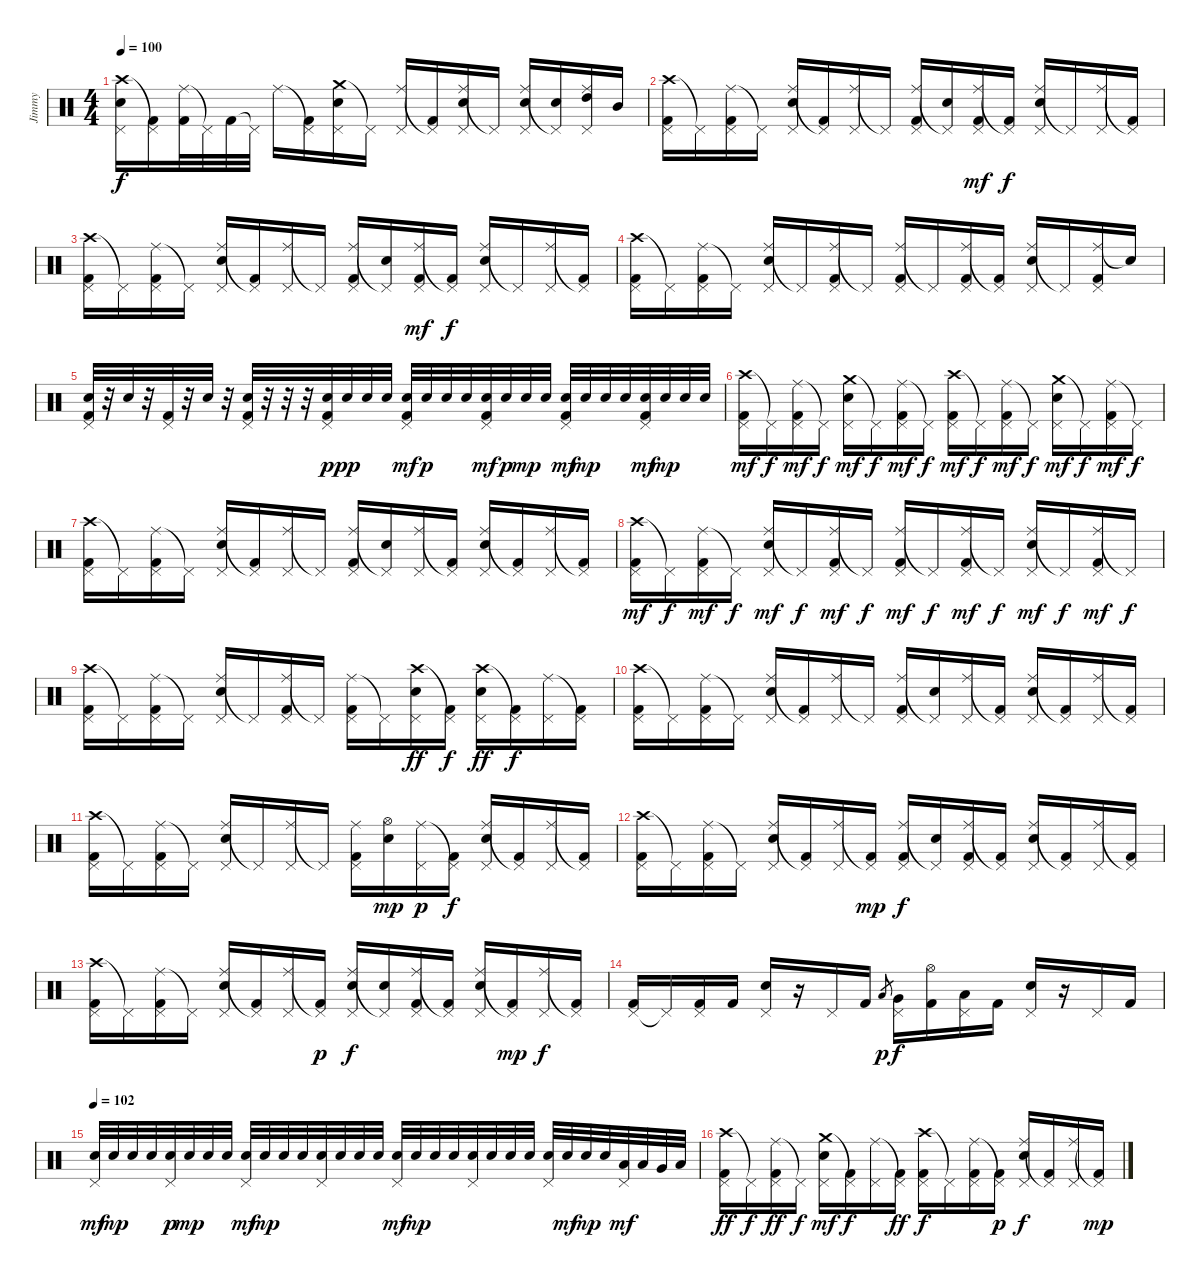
\track ("Jimmy" "Jimmy") {instrument percussion}
\staff {score}
\articulation defaults
\ts (4 4)
\tempo 100
\clef neutral
\ks c
("Crash high (hit)" "Pedal Hi-Hat (hit)" "Electric Snare (hit)").16{dy f} ("Pedal Hi-Hat (hit)"{t} "Kick (hit) 2").16 ("Ride (middle)" "Kick (hit) 2").32 "Pedal Hi-Hat (hit)"{t}.32 "Kick (hit) 2".32 "Pedal Hi-Hat (hit)"{t}.32 "Ride (middle)".16 ("Pedal Hi-Hat (hit)"{t} "Kick (hit) 2").16 ("Crash medium (hit)" "Pedal Hi-Hat (hit)" "Electric Snare (hit)").16 "Pedal Hi-Hat (hit)"{t}.16 ("Ride (middle)" "Pedal Hi-Hat (hit)").16 ("Pedal Hi-Hat (hit)"{t} "Kick (hit) 2").16 ("Ride (middle)" "Pedal Hi-Hat (hit)" "Electric Snare (hit)").16 "Pedal Hi-Hat (hit)"{t}.16 ("Ride (middle)" "Pedal Hi-Hat (hit)" "Electric Snare (hit)").16 ("Pedal Hi-Hat (hit)"{t} "Electric Snare (hit)").16 ("Ride (middle)" "Pedal Hi-Hat (hit)" "High Tom (hit)").16 "Mid Tom (hit)".16 |
("Crash high (hit)" "Pedal Hi-Hat (hit)" "Kick (hit) 2").16 "Pedal Hi-Hat (hit)"{t}.16 ("Ride (middle)" "Pedal Hi-Hat (hit)" "Kick (hit) 2").16 "Pedal Hi-Hat (hit)"{t}.16 ("Ride (middle)" "Pedal Hi-Hat (hit)" "Electric Snare (hit)").16 ("Pedal Hi-Hat (hit)"{t} "Kick (hit) 2").16 ("Ride (middle)" "Pedal Hi-Hat (hit)").16 "Pedal Hi-Hat (hit)"{t}.16 ("Ride (middle)" "Pedal Hi-Hat (hit)" "Kick (hit) 2").16 ("Pedal Hi-Hat (hit)"{t} "Electric Snare (hit)").16 ("Ride (middle)" "Pedal Hi-Hat (hit)" "Kick (hit) 2").16{dy mf} ("Pedal Hi-Hat (hit)"{t} "Kick (hit) 2").16{dy f} ("Ride (middle)" "Pedal Hi-Hat (hit)" "Electric Snare (hit)").16 "Pedal Hi-Hat (hit)"{t}.16 ("Ride (middle)" "Pedal Hi-Hat (hit)").16 ("Pedal Hi-Hat (hit)"{t} "Kick (hit) 2").16 |
("Crash high (hit)" "Pedal Hi-Hat (hit)" "Kick (hit) 2").16 "Pedal Hi-Hat (hit)"{t}.16 ("Ride (middle)" "Pedal Hi-Hat (hit)" "Kick (hit) 2").16 "Pedal Hi-Hat (hit)"{t}.16 ("Ride (middle)" "Pedal Hi-Hat (hit)" "Electric Snare (hit)").16 ("Pedal Hi-Hat (hit)"{t} "Kick (hit) 2").16 ("Ride (middle)" "Pedal Hi-Hat (hit)").16 "Pedal Hi-Hat (hit)"{t}.16 ("Ride (middle)" "Pedal Hi-Hat (hit)" "Kick (hit) 2").16 ("Pedal Hi-Hat (hit)"{t} "Electric Snare (hit)").16 ("Ride (middle)" "Pedal Hi-Hat (hit)" "Kick (hit) 2").16{dy mf} ("Pedal Hi-Hat (hit)"{t} "Kick (hit) 2").16{dy f} ("Ride (middle)" "Pedal Hi-Hat (hit)" "Electric Snare (hit)").16 "Pedal Hi-Hat (hit)"{t}.16 ("Ride (middle)" "Pedal Hi-Hat (hit)").16 ("Pedal Hi-Hat (hit)"{t} "Kick (hit) 2").16 |
("Crash high (hit)" "Pedal Hi-Hat (hit)" "Kick (hit) 2").16 "Pedal Hi-Hat (hit)"{t}.16 ("Ride (middle)" "Pedal Hi-Hat (hit)" "Kick (hit) 2").16 "Pedal Hi-Hat (hit)"{t}.16 ("Ride (middle)" "Pedal Hi-Hat (hit)" "Electric Snare (hit)").16 "Pedal Hi-Hat (hit)"{t}.16 ("Ride (middle)" "Pedal Hi-Hat (hit)" "Kick (hit) 2").16 "Pedal Hi-Hat (hit)"{t}.16 ("Ride (middle)" "Pedal Hi-Hat (hit)" "Kick (hit) 2").16 "Pedal Hi-Hat (hit)"{t}.16 ("Ride (middle)" "Pedal Hi-Hat (hit)" "Kick (hit) 2").16 ("Pedal Hi-Hat (hit)"{t} "Kick (hit) 2").16 ("Ride (middle)" "Pedal Hi-Hat (hit)" "Electric Snare (hit)").16 "Pedal Hi-Hat (hit)"{t}.16 ("Ride (middle)" "Pedal Hi-Hat (hit)" "Kick (hit) 2").16 "Snare (hit)"{t}.16 |
("Pedal Hi-Hat (hit)" "Electric Snare (hit)" "Kick (hit) 2").32 r.32 "Electric Snare (hit)".32 r.32 ("Pedal Hi-Hat (hit)" "Kick (hit) 2").32 r.32 "Electric Snare (hit)".32 r.32 ("Pedal Hi-Hat (hit)" "Electric Snare (hit)" "Kick (hit) 2").32 r.32 r.32 r.32 ("Pedal Hi-Hat (hit)" "Electric Snare (hit)" "Kick (hit) 2").32{dy p} "Electric Snare (hit)".32{dy pp} "Electric Snare (hit)".32 "Electric Snare (hit)".32 ("Pedal Hi-Hat (hit)" "Electric Snare (hit)" "Kick (hit) 2").32{dy mf} "Electric Snare (hit)".32{dy p} "Electric Snare (hit)".32 "Electric Snare (hit)".32 ("Pedal Hi-Hat (hit)" "Electric Snare (hit)" "Kick (hit) 2").32{dy mf} "Electric Snare (hit)".32{dy p} "Electric Snare (hit)".32{dy mp} "Electric Snare (hit)".32 ("Pedal Hi-Hat (hit)" "Electric Snare (hit)" "Kick (hit) 2").32{dy mf} "Electric Snare (hit)".32{dy mp} "Electric Snare (hit)".32 "Electric Snare (hit)".32 ("Pedal Hi-Hat (hit)" "Electric Snare (hit)" "Kick (hit) 2").32{dy mf} "Electric Snare (hit)".32{dy mp} "Electric Snare (hit)".32 "Electric Snare (hit)".32 |
("Crash high (hit)" "Pedal Hi-Hat (hit)" "Kick (hit) 2").16{dy mf} "Pedal Hi-Hat (hit)"{t}.16{dy f} ("Ride (middle)" "Pedal Hi-Hat (hit)" "Kick (hit) 2").16{dy mf} "Pedal Hi-Hat (hit)"{t}.16{dy f} ("Crash medium (hit)" "Pedal Hi-Hat (hit)" "Electric Snare (hit)").16{dy mf} "Pedal Hi-Hat (hit)"{t}.16{dy f} ("Ride (middle)" "Pedal Hi-Hat (hit)" "Kick (hit) 2").16{dy mf} "Pedal Hi-Hat (hit)"{t}.16{dy f} ("Crash high (hit)" "Pedal Hi-Hat (hit)" "Kick (hit) 2").16{dy mf} "Pedal Hi-Hat (hit)"{t}.16{dy f} ("Ride (middle)" "Pedal Hi-Hat (hit)" "Kick (hit) 2").16{dy mf} "Pedal Hi-Hat (hit)"{t}.16{dy f} ("Crash medium (hit)" "Pedal Hi-Hat (hit)" "Electric Snare (hit)").16{dy mf} "Pedal Hi-Hat (hit)"{t}.16{dy f} ("Ride (middle)" "Pedal Hi-Hat (hit)" "Kick (hit) 2").16{dy mf} "Pedal Hi-Hat (hit)"{t}.16{dy f} |
("Crash high (hit)" "Pedal Hi-Hat (hit)" "Kick (hit) 2").16 "Pedal Hi-Hat (hit)"{t}.16 ("Ride (middle)" "Pedal Hi-Hat (hit)" "Kick (hit) 2").16 "Pedal Hi-Hat (hit)"{t}.16 ("Ride (middle)" "Pedal Hi-Hat (hit)" "Electric Snare (hit)").16 ("Pedal Hi-Hat (hit)"{t} "Kick (hit) 2").16 ("Ride (middle)" "Pedal Hi-Hat (hit)").16 "Pedal Hi-Hat (hit)"{t}.16 ("Ride (middle)" "Pedal Hi-Hat (hit)" "Kick (hit) 2").16 ("Pedal Hi-Hat (hit)"{t} "Electric Snare (hit)").16 ("Ride (middle)" "Pedal Hi-Hat (hit)").16 ("Pedal Hi-Hat (hit)"{t} "Kick (hit) 2").16 ("Ride (middle)" "Pedal Hi-Hat (hit)" "Electric Snare (hit)").16 ("Pedal Hi-Hat (hit)"{t} "Kick (hit) 2").16 ("Ride (middle)" "Pedal Hi-Hat (hit)").16 ("Pedal Hi-Hat (hit)"{t} "Kick (hit) 2").16 |
("Crash high (hit)" "Pedal Hi-Hat (hit)" "Kick (hit) 2").16{dy mf} "Pedal Hi-Hat (hit)"{t}.16{dy f} ("Ride (middle)" "Pedal Hi-Hat (hit)" "Kick (hit) 2").16{dy mf} "Pedal Hi-Hat (hit)"{t}.16{dy f} ("Ride (middle)" "Pedal Hi-Hat (hit)" "Electric Snare (hit)").16{dy mf} "Pedal Hi-Hat (hit)"{t}.16{dy f} ("Ride (middle)" "Pedal Hi-Hat (hit)" "Kick (hit) 2").16{dy mf} "Pedal Hi-Hat (hit)"{t}.16{dy f} ("Ride (middle)" "Pedal Hi-Hat (hit)" "Kick (hit) 2").16{dy mf} "Pedal Hi-Hat (hit)"{t}.16{dy f} ("Ride (middle)" "Pedal Hi-Hat (hit)" "Kick (hit) 2").16{dy mf} "Pedal Hi-Hat (hit)"{t}.16{dy f} ("Ride (middle)" "Pedal Hi-Hat (hit)" "Electric Snare (hit)").16{dy mf} "Pedal Hi-Hat (hit)"{t}.16{dy f} ("Ride (middle)" "Pedal Hi-Hat (hit)" "Kick (hit) 2").16{dy mf} "Pedal Hi-Hat (hit)"{t}.16{dy f} |
("Crash high (hit)" "Pedal Hi-Hat (hit)" "Kick (hit) 2").16 "Pedal Hi-Hat (hit)"{t}.16 ("Ride (middle)" "Pedal Hi-Hat (hit)" "Kick (hit) 2").16 "Pedal Hi-Hat (hit)"{t}.16 ("Ride (middle)" "Pedal Hi-Hat (hit)" "Electric Snare (hit)").16 "Pedal Hi-Hat (hit)"{t}.16 ("Ride (middle)" "Pedal Hi-Hat (hit)" "Kick (hit) 2").16 "Pedal Hi-Hat (hit)"{t}.16 ("Ride (middle)" "Pedal Hi-Hat (hit)" "Kick (hit) 2").16 "Pedal Hi-Hat (hit)"{t}.16 ("Crash high (hit)" "Pedal Hi-Hat (hit)" "Electric Snare (hit)").16{dy ff} ("Pedal Hi-Hat (hit)"{t} "Kick (hit) 2").16{dy f} ("Crash high (hit)" "Pedal Hi-Hat (hit)" "Electric Snare (hit)").16{dy ff} ("Pedal Hi-Hat (hit)"{t} "Kick (hit) 2").16{dy f} ("Ride (middle)" "Pedal Hi-Hat (hit)").16 ("Pedal Hi-Hat (hit)"{t} "Kick (hit) 2").16 |
("Crash high (hit)" "Pedal Hi-Hat (hit)" "Kick (hit) 2").16 "Pedal Hi-Hat (hit)"{t}.16 ("Ride (middle)" "Pedal Hi-Hat (hit)" "Kick (hit) 2").16 "Pedal Hi-Hat (hit)"{t}.16 ("Ride (middle)" "Pedal Hi-Hat (hit)" "Electric Snare (hit)").16 ("Pedal Hi-Hat (hit)"{t} "Kick (hit) 2").16 ("Ride (middle)" "Pedal Hi-Hat (hit)").16 "Pedal Hi-Hat (hit)"{t}.16 ("Ride (middle)" "Pedal Hi-Hat (hit)" "Kick (hit) 2").16 ("Pedal Hi-Hat (hit)"{t} "Electric Snare (hit)").16 ("Ride (middle)" "Pedal Hi-Hat (hit)").16 ("Pedal Hi-Hat (hit)"{t} "Kick (hit) 2").16 ("Ride (middle)" "Pedal Hi-Hat (hit)" "Electric Snare (hit)").16 ("Pedal Hi-Hat (hit)"{t} "Kick (hit) 2").16 ("Ride (middle)" "Pedal Hi-Hat (hit)").16 ("Pedal Hi-Hat (hit)"{t} "Kick (hit) 2").16 |
("Crash high (hit)" "Pedal Hi-Hat (hit)" "Kick (hit) 2").16 "Pedal Hi-Hat (hit)"{t}.16 ("Ride (middle)" "Pedal Hi-Hat (hit)" "Kick (hit) 2").16 "Pedal Hi-Hat (hit)"{t}.16 ("Ride (middle)" "Pedal Hi-Hat (hit)" "Electric Snare (hit)").16 "Pedal Hi-Hat (hit)"{t}.16 ("Ride (middle)" "Pedal Hi-Hat (hit)").16 "Pedal Hi-Hat (hit)"{t}.16 ("Ride (middle)" "Pedal Hi-Hat (hit)" "Kick (hit) 2").16 ("Hi-Hat (open)" "Electric Snare (hit)").16{dy mp} ("Ride (middle)" "Pedal Hi-Hat (hit)").16{dy p} ("Pedal Hi-Hat (hit)"{t} "Kick (hit) 2").16{dy f} ("Ride (middle)" "Pedal Hi-Hat (hit)" "Electric Snare (hit)").16 ("Pedal Hi-Hat (hit)"{t} "Kick (hit) 2").16 ("Ride (middle)" "Pedal Hi-Hat (hit)").16 ("Pedal Hi-Hat (hit)"{t} "Kick (hit) 2").16 |
("Crash high (hit)" "Pedal Hi-Hat (hit)" "Kick (hit) 2").16 "Pedal Hi-Hat (hit)"{t}.16 ("Ride (middle)" "Pedal Hi-Hat (hit)" "Kick (hit) 2").16 "Pedal Hi-Hat (hit)"{t}.16 ("Ride (middle)" "Pedal Hi-Hat (hit)" "Electric Snare (hit)").16 ("Pedal Hi-Hat (hit)"{t} "Kick (hit) 2").16 ("Ride (middle)" "Pedal Hi-Hat (hit)").16 ("Pedal Hi-Hat (hit)"{t} "Kick (hit) 2").16{dy mp} ("Ride (middle)" "Pedal Hi-Hat (hit)" "Kick (hit) 2").16{dy f} ("Pedal Hi-Hat (hit)"{t} "Electric Snare (hit)").16 ("Ride (middle)" "Pedal Hi-Hat (hit)" "Kick (hit) 2").16 ("Pedal Hi-Hat (hit)"{t} "Kick (hit) 2").16 ("Ride (middle)" "Pedal Hi-Hat (hit)" "Electric Snare (hit)").16 ("Pedal Hi-Hat (hit)"{t} "Kick (hit) 2").16 ("Ride (middle)" "Pedal Hi-Hat (hit)").16 ("Pedal Hi-Hat (hit)"{t} "Kick (hit) 2").16 |
("Crash high (hit)" "Pedal Hi-Hat (hit)" "Kick (hit) 2").16 "Pedal Hi-Hat (hit)"{t}.16 ("Ride (middle)" "Pedal Hi-Hat (hit)" "Kick (hit) 2").16 "Pedal Hi-Hat (hit)"{t}.16 ("Ride (middle)" "Pedal Hi-Hat (hit)" "Electric Snare (hit)").16 ("Pedal Hi-Hat (hit)"{t} "Kick (hit) 2").16 ("Ride (middle)" "Pedal Hi-Hat (hit)").16 ("Pedal Hi-Hat (hit)"{t} "Kick (hit) 2").16{dy p} ("Ride (middle)" "Pedal Hi-Hat (hit)" "Electric Snare (hit)").16{dy f} ("Pedal Hi-Hat (hit)"{t} "Electric Snare (hit)").16 ("Ride (middle)" "Pedal Hi-Hat (hit)" "Kick (hit) 2").16 ("Pedal Hi-Hat (hit)"{t} "Kick (hit) 2").16 ("Ride (middle)" "Pedal Hi-Hat (hit)" "Electric Snare (hit)").16 ("Pedal Hi-Hat (hit)"{t} "Kick (hit) 2").16{dy mp} ("Ride (middle)" "Pedal Hi-Hat (hit)").16{dy f} ("Pedal Hi-Hat (hit)"{t} "Kick (hit) 2").16 |
("Pedal Hi-Hat (hit)" "Kick (hit) 2").16 "Pedal Hi-Hat (hit)"{t}.16 ("Pedal Hi-Hat (hit)" "Kick (hit) 2").16 "Kick (hit) 2".16 ("Pedal Hi-Hat (hit)" "Electric Snare (hit)").16 r.16 "Pedal Hi-Hat (hit)".16 "Kick (hit) 2".16 "Low Tom (hit)".8{gr dy p} ("Pedal Hi-Hat (hit)" "Very Low Tom (hit)").16{dy f} ("Hi-Hat (open)" "Kick (hit) 2").16 ("Pedal Hi-Hat (hit)" "Low Floor Tom (hit)").16 "Kick (hit) 2".16 ("Pedal Hi-Hat (hit)" "Electric Snare (hit)").16 r.16 "Pedal Hi-Hat (hit)".16 "Kick (hit) 2".16 |
\tempo 102
("Pedal Hi-Hat (hit)" "Electric Snare (hit)").32{dy mf} "Electric Snare (hit)".32{dy mp} "Electric Snare (hit)".32 "Electric Snare (hit)".32 ("Pedal Hi-Hat (hit)" "Electric Snare (hit)").32{dy p} "Electric Snare (hit)".32{dy mp} "Electric Snare (hit)".32 "Electric Snare (hit)".32 ("Pedal Hi-Hat (hit)" "Electric Snare (hit)").32{dy mf} "Electric Snare (hit)".32{dy mp} "Electric Snare (hit)".32 "Electric Snare (hit)".32 ("Pedal Hi-Hat (hit)" "Electric Snare (hit)").32 "Electric Snare (hit)".32 "Electric Snare (hit)".32 "Electric Snare (hit)".32 ("Pedal Hi-Hat (hit)" "Electric Snare (hit)").32{dy mf} "Electric Snare (hit)".32{dy mp} "Electric Snare (hit)".32 "Electric Snare (hit)".32 ("Pedal Hi-Hat (hit)" "Electric Snare (hit)").32 "Electric Snare (hit)".32 "Electric Snare (hit)".32 "Electric Snare (hit)".32 ("Pedal Hi-Hat (hit)" "Electric Snare (hit)").32 "Electric Snare (hit)".32{dy mf} "Electric Snare (hit)".32{dy mp} "Electric Snare (hit)".32 ("Pedal Hi-Hat (hit)" "Low Tom (hit)").32{dy mf} "Low Tom (hit)".32 "Very Low Tom (hit)".32 "Low Floor Tom (hit)".32 |
("Crash high (hit)" "Pedal Hi-Hat (hit)" "Kick (hit) 2").16{dy ff} "Pedal Hi-Hat (hit)"{t}.16{dy f} ("Ride (middle)" "Pedal Hi-Hat (hit)" "Kick (hit) 2").16{dy ff} "Pedal Hi-Hat (hit)"{t}.16{dy f} ("Crash medium (hit)" "Pedal Hi-Hat (hit)" "Electric Snare (hit)").16{dy mf} ("Pedal Hi-Hat (hit)"{t} "Kick (hit) 2").16{dy f} ("Ride (middle)" "Pedal Hi-Hat (hit)").16 ("Pedal Hi-Hat (hit)"{t} "Kick (hit) 2").16{dy ff} ("Crash high (hit)" "Pedal Hi-Hat (hit)" "Kick (hit) 2").16{dy f} "Pedal Hi-Hat (hit)"{t}.16 ("Ride (middle)" "Pedal Hi-Hat (hit)" "Kick (hit) 2").16 ("Pedal Hi-Hat (hit)"{t} "Kick (hit) 2").16{dy p} ("Ride (middle)" "Pedal Hi-Hat (hit)" "Electric Snare (hit)").16{dy f} ("Pedal Hi-Hat (hit)"{t} "Kick (hit) 2").16 ("Ride (middle)" "Pedal Hi-Hat (hit)").16 ("Pedal Hi-Hat (hit)"{t} "Kick (hit) 2").16{dy mp}
